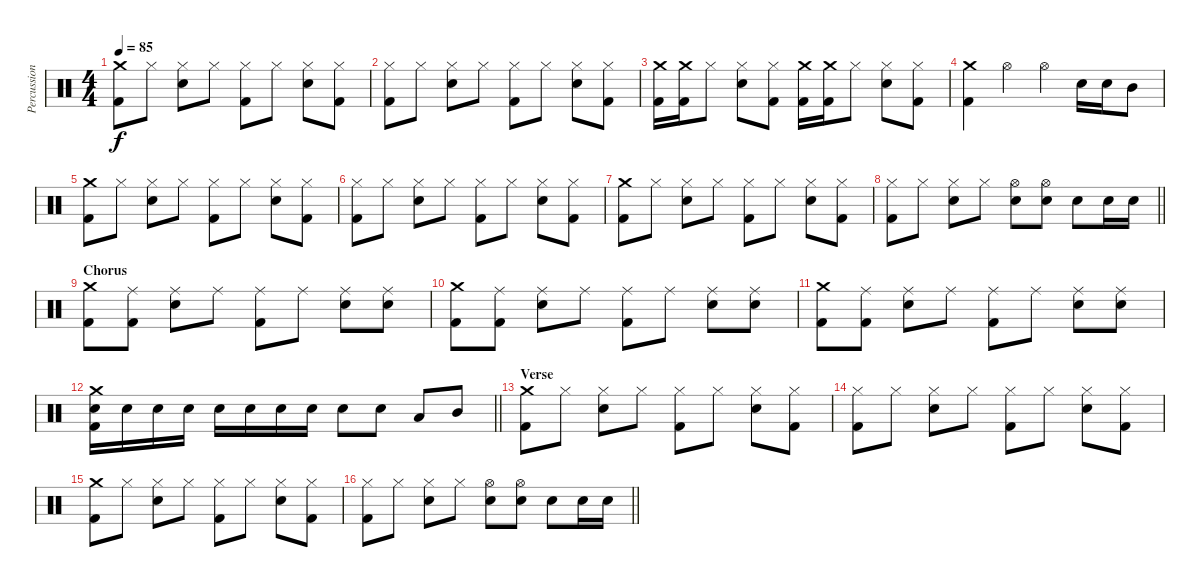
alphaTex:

\track ("Percussion" "Percussion") {instrument percussion}
\staff {score}
\articulation defaults
\ts (4 4)
\tempo 85
\clef neutral
\ks c
("Crash medium (hit)" "Kick (hit) 2").8{dy f} "Hi-Hat (closed)".8 ("Hi-Hat (closed)" "Electric Snare (hit)").8 "Hi-Hat (closed)".8 ("Hi-Hat (closed)" "Kick (hit) 2").8 "Hi-Hat (closed)".8 ("Hi-Hat (closed)" "Electric Snare (hit)").8 ("Hi-Hat (closed)" "Kick (hit) 2").8 |
("Hi-Hat (closed)" "Kick (hit) 2").8 "Hi-Hat (closed)".8 ("Hi-Hat (closed)" "Electric Snare (hit)").8 "Hi-Hat (closed)".8 ("Hi-Hat (closed)" "Kick (hit) 2").8 "Hi-Hat (closed)".8 ("Hi-Hat (closed)" "Electric Snare (hit)").8 ("Hi-Hat (closed)" "Kick (hit) 2").8 |
("Crash medium (hit)" "Kick (hit) 2").16 ("Crash medium (hit)" "Kick (hit) 2").16 "Hi-Hat (closed)".8 ("Hi-Hat (closed)" "Electric Snare (hit)").8 ("Hi-Hat (closed)" "Kick (hit) 2").8 ("Crash medium (hit)" "Kick (hit) 2").16 ("Crash medium (hit)" "Kick (hit) 2").16 "Hi-Hat (closed)".8 ("Hi-Hat (closed)" "Electric Snare (hit)").8 ("Hi-Hat (closed)" "Kick (hit) 2").8 |
("Crash medium (hit)" "Kick (hit) 2").4 "Hi-Hat (open)".4 "Hi-Hat (open)".4 "Electric Snare (hit)".16 "Electric Snare (hit)".16 "Mid Tom (hit)".8 |
("Crash medium (hit)" "Kick (hit) 2").8 "Hi-Hat (closed)".8 ("Hi-Hat (closed)" "Electric Snare (hit)").8 "Hi-Hat (closed)".8 ("Hi-Hat (closed)" "Kick (hit) 2").8 "Hi-Hat (closed)".8 ("Hi-Hat (closed)" "Electric Snare (hit)").8 ("Hi-Hat (closed)" "Kick (hit) 2").8 |
("Hi-Hat (closed)" "Kick (hit) 2").8 "Hi-Hat (closed)".8 ("Hi-Hat (closed)" "Electric Snare (hit)").8 "Hi-Hat (closed)".8 ("Hi-Hat (closed)" "Kick (hit) 2").8 "Hi-Hat (closed)".8 ("Hi-Hat (closed)" "Electric Snare (hit)").8 ("Hi-Hat (closed)" "Kick (hit) 2").8 |
("Crash medium (hit)" "Kick (hit) 2").8 "Hi-Hat (closed)".8 ("Hi-Hat (closed)" "Electric Snare (hit)").8 "Hi-Hat (closed)".8 ("Hi-Hat (closed)" "Kick (hit) 2").8 "Hi-Hat (closed)".8 ("Hi-Hat (closed)" "Electric Snare (hit)").8 ("Hi-Hat (closed)" "Kick (hit) 2").8 |
\barLineRight lightlight
("Hi-Hat (closed)" "Kick (hit) 2").8 "Hi-Hat (closed)".8 ("Hi-Hat (closed)" "Electric Snare (hit)").8 "Hi-Hat (closed)".8 ("Hi-Hat (open)" "Electric Snare (hit)").8 ("Hi-Hat (open)" "Electric Snare (hit)").8 "Electric Snare (hit)".8 "Electric Snare (hit)".16 "Electric Snare (hit)".16 |
\section ("" "Chorus")
("Crash medium (hit)" "Kick (hit) 2").8 ("Ride (middle)" "Kick (hit) 2").8 ("Ride (middle)" "Electric Snare (hit)").8 "Ride (middle)".8 ("Ride (middle)" "Kick (hit) 2").8 "Ride (middle)".8 ("Ride (middle)" "Electric Snare (hit)").8 ("Ride (middle)" "Electric Snare (hit)").8 |
("Crash medium (hit)" "Kick (hit) 2").8 ("Ride (middle)" "Kick (hit) 2").8 ("Ride (middle)" "Electric Snare (hit)").8 "Ride (middle)".8 ("Ride (middle)" "Kick (hit) 2").8 "Ride (middle)".8 ("Ride (middle)" "Electric Snare (hit)").8 ("Ride (middle)" "Electric Snare (hit)").8 |
("Crash medium (hit)" "Kick (hit) 2").8 ("Ride (middle)" "Kick (hit) 2").8 ("Ride (middle)" "Electric Snare (hit)").8 "Ride (middle)".8 ("Ride (middle)" "Kick (hit) 2").8 "Ride (middle)".8 ("Ride (middle)" "Electric Snare (hit)").8 ("Ride (middle)" "Electric Snare (hit)").8 |
\barLineRight lightlight
("Crash medium (hit)" "Electric Snare (hit)" "Kick (hit) 2").16 "Electric Snare (hit)".16 "Electric Snare (hit)".16 "Electric Snare (hit)".16 "Electric Snare (hit)".16 "Electric Snare (hit)".16 "Electric Snare (hit)".16 "Electric Snare (hit)".16 "Electric Snare (hit)".8 "Electric Snare (hit)".8 "Low Tom (hit)".8 "Mid Tom (hit)".8 |
\section ("" "Verse")
("Crash medium (hit)" "Kick (hit) 2").8 "Hi-Hat (closed)".8 ("Hi-Hat (closed)" "Electric Snare (hit)").8 "Hi-Hat (closed)".8 ("Hi-Hat (closed)" "Kick (hit) 2").8 "Hi-Hat (closed)".8 ("Hi-Hat (closed)" "Electric Snare (hit)").8 ("Hi-Hat (closed)" "Kick (hit) 2").8 |
("Hi-Hat (closed)" "Kick (hit) 2").8 "Hi-Hat (closed)".8 ("Hi-Hat (closed)" "Electric Snare (hit)").8 "Hi-Hat (closed)".8 ("Hi-Hat (closed)" "Kick (hit) 2").8 "Hi-Hat (closed)".8 ("Hi-Hat (closed)" "Electric Snare (hit)").8 ("Hi-Hat (closed)" "Kick (hit) 2").8 |
("Crash medium (hit)" "Kick (hit) 2").8 "Hi-Hat (closed)".8 ("Hi-Hat (closed)" "Electric Snare (hit)").8 "Hi-Hat (closed)".8 ("Hi-Hat (closed)" "Kick (hit) 2").8 "Hi-Hat (closed)".8 ("Hi-Hat (closed)" "Electric Snare (hit)").8 ("Hi-Hat (closed)" "Kick (hit) 2").8 |
\barLineRight lightlight
("Hi-Hat (closed)" "Kick (hit) 2").8 "Hi-Hat (closed)".8 ("Hi-Hat (closed)" "Electric Snare (hit)").8 "Hi-Hat (closed)".8 ("Hi-Hat (open)" "Electric Snare (hit)").8 ("Hi-Hat (open)" "Electric Snare (hit)").8 "Electric Snare (hit)".8 "Electric Snare (hit)".16 "Electric Snare (hit)".16
